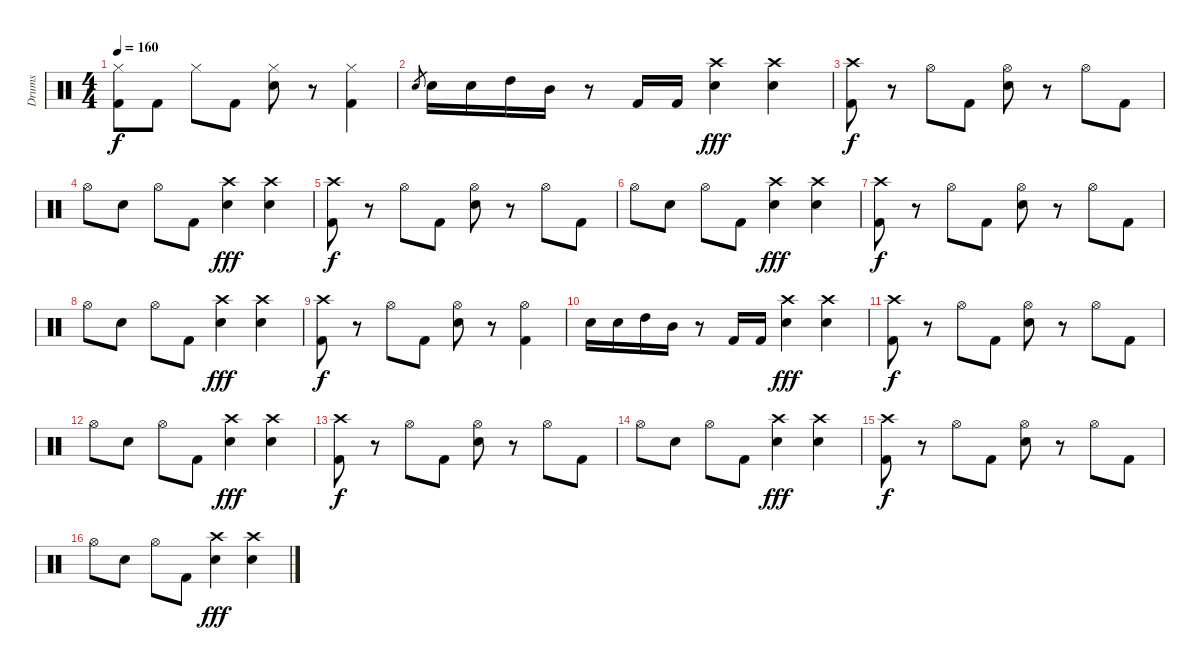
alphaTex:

\track ("Drums" "Drums") {instrument percussion}
\staff {score}
\articulation defaults
\ts (4 4)
\tempo 160
\clef neutral
\ks c
("Hi-Hat (closed)" "Kick (hit) 2").8{dy f} "Kick (hit) 2".8 "Hi-Hat (closed)".8 "Kick (hit) 2".8 ("Hi-Hat (closed)" "Electric Snare (hit)").8 r.8 ("Hi-Hat (closed)" "Kick (hit) 2").4 |
"Electric Snare (hit)".8{gr} "Electric Snare (hit)".16 "Electric Snare (hit)".16 "High Tom (hit)".16 "Mid Tom (hit)".16 r.8 "Kick (hit) 2".16 "Kick (hit) 2".16 ("Crash high (hit)" "Electric Snare (hit)").4{dy fff} ("Crash high (hit)" "Electric Snare (hit)").4 |
("Crash high (hit)" "Kick (hit) 2").8{dy f} r.8 "Hi-Hat (open)".8 "Kick (hit) 2".8 ("Hi-Hat (open)" "Electric Snare (hit)").8 r.8 "Hi-Hat (open)".8 "Kick (hit) 2".8 |
"Hi-Hat (open)".8 "Electric Snare (hit)".8 "Hi-Hat (open)".8 "Kick (hit) 2".8 ("Crash high (hit)" "Electric Snare (hit)").4{dy fff} ("Crash high (hit)" "Electric Snare (hit)").4 |
("Crash high (hit)" "Kick (hit) 2").8{dy f} r.8 "Hi-Hat (open)".8 "Kick (hit) 2".8 ("Hi-Hat (open)" "Electric Snare (hit)").8 r.8 "Hi-Hat (open)".8 "Kick (hit) 2".8 |
"Hi-Hat (open)".8 "Electric Snare (hit)".8 "Hi-Hat (open)".8 "Kick (hit) 2".8 ("Crash high (hit)" "Electric Snare (hit)").4{dy fff} ("Crash high (hit)" "Electric Snare (hit)").4 |
("Crash high (hit)" "Kick (hit) 2").8{dy f} r.8 "Hi-Hat (open)".8 "Kick (hit) 2".8 ("Hi-Hat (open)" "Electric Snare (hit)").8 r.8 "Hi-Hat (open)".8 "Kick (hit) 2".8 |
"Hi-Hat (open)".8 "Electric Snare (hit)".8 "Hi-Hat (open)".8 "Kick (hit) 2".8 ("Crash high (hit)" "Electric Snare (hit)").4{dy fff} ("Crash high (hit)" "Electric Snare (hit)").4 |
("Crash high (hit)" "Kick (hit) 2").8{dy f} r.8 "Hi-Hat (open)".8 "Kick (hit) 2".8 ("Hi-Hat (open)" "Electric Snare (hit)").8 r.8 ("Hi-Hat (open)" "Kick (hit) 2").4 |
"Electric Snare (hit)".16 "Electric Snare (hit)".16 "High Tom (hit)".16 "Mid Tom (hit)".16 r.8 "Kick (hit) 2".16 "Kick (hit) 2".16 ("Crash high (hit)" "Electric Snare (hit)").4{dy fff} ("Crash high (hit)" "Electric Snare (hit)").4 |
("Crash high (hit)" "Kick (hit) 2").8{dy f} r.8 "Hi-Hat (open)".8 "Kick (hit) 2".8 ("Hi-Hat (open)" "Electric Snare (hit)").8 r.8 "Hi-Hat (open)".8 "Kick (hit) 2".8 |
"Hi-Hat (open)".8 "Electric Snare (hit)".8 "Hi-Hat (open)".8 "Kick (hit) 2".8 ("Crash high (hit)" "Electric Snare (hit)").4{dy fff} ("Crash high (hit)" "Electric Snare (hit)").4 |
("Crash high (hit)" "Kick (hit) 2").8{dy f} r.8 "Hi-Hat (open)".8 "Kick (hit) 2".8 ("Hi-Hat (open)" "Electric Snare (hit)").8 r.8 "Hi-Hat (open)".8 "Kick (hit) 2".8 |
"Hi-Hat (open)".8 "Electric Snare (hit)".8 "Hi-Hat (open)".8 "Kick (hit) 2".8 ("Crash high (hit)" "Electric Snare (hit)").4{dy fff} ("Crash high (hit)" "Electric Snare (hit)").4 |
("Crash high (hit)" "Kick (hit) 2").8{dy f} r.8 "Hi-Hat (open)".8 "Kick (hit) 2".8 ("Hi-Hat (open)" "Electric Snare (hit)").8 r.8 "Hi-Hat (open)".8 "Kick (hit) 2".8 |
"Hi-Hat (open)".8 "Electric Snare (hit)".8 "Hi-Hat (open)".8 "Kick (hit) 2".8 ("Crash high (hit)" "Electric Snare (hit)").4{dy fff} ("Crash high (hit)" "Electric Snare (hit)").4
